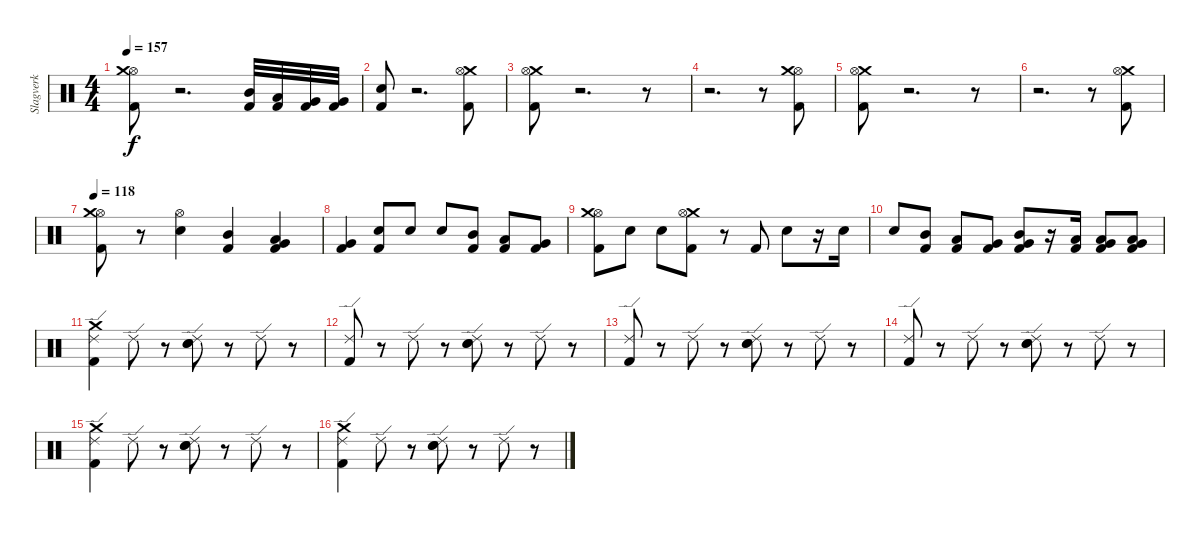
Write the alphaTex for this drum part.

\track ("Slagverk" "Slagverk") {instrument percussion}
\staff {score}
\articulation defaults
\ts (4 4)
\tempo 157
\clef neutral
\ks c
("Hi-Hat (open)" "Crash medium (hit)" "Kick (hit) 2").8{dy f} r.2{d} ("Kick (hit) 2" "Mid Tom (hit)").32 ("Kick (hit) 2" "Low Tom (hit)").32 ("Kick (hit) 2" "Very Low Tom (hit)").32 ("Kick (hit) 2" "Very Low Tom (hit)").32 |
("Kick (hit) 2" "Snare (hit) 2").8 r.2{d} ("Crash medium (hit)" "Hi-Hat (open)" "Kick (hit) 2").8 |
("Crash medium (hit)" "Hi-Hat (open)" "Kick (hit) 2").8 r.2{d} r.8 |
r.2{d} r.8 ("Hi-Hat (open)" "Crash medium (hit)" "Kick (hit) 2").8 |
("Crash medium (hit)" "Hi-Hat (open)" "Kick (hit) 2").8 r.2{d} r.8 |
r.2{d} r.8 ("Crash medium (hit)" "Hi-Hat (open)" "Kick (hit) 2").8 |
\tempo 118
("Hi-Hat (open)" "Crash medium (hit)" "Kick (hit) 2").8 r.8 ("Hi-Hat (open)" "Snare (hit) 2").4 ("Mid Tom (hit)" "Kick (hit) 2").4 ("Low Tom (hit)" "Kick (hit) 2" "Very Low Tom (hit)").4 |
("Very Low Tom (hit)" "Kick (hit) 2").4 ("Kick (hit) 2" "Snare (hit) 2").8 "Snare (hit) 2".8 "Snare (hit) 2".8 ("Kick (hit) 2" "Mid Tom (hit)").8 ("Kick (hit) 2" "Low Tom (hit)").8 ("Kick (hit) 2" "Very Low Tom (hit)").8 |
("Hi-Hat (open)" "Crash medium (hit)" "Kick (hit) 2").8 "Snare (hit) 2".8 "Snare (hit) 2".8 ("Crash medium (hit)" "Hi-Hat (open)" "Kick (hit) 2").8 r.8 "Kick (hit) 2".8 "Snare (hit) 2".8 r.16 "Snare (hit) 2".16 |
"Snare (hit) 2".8 ("Mid Tom (hit)" "Kick (hit) 2").8 ("Low Tom (hit)" "Kick (hit) 2").8 ("Very Low Tom (hit)" "Kick (hit) 2").8 ("Mid Tom (hit)" "Very Low Tom (hit)" "Kick (hit) 2").8 r.16 ("Low Tom (hit)" "Kick (hit) 2").16 ("Low Floor Tom (hit)" "Very Low Tom (hit)" "Kick (hit) 2").8 ("Very Low Tom (hit)" "Low Floor Tom (hit)" "Kick (hit) 2").8 |
("Crash medium (hit)" "Kick (hit) 2" "Ride (edge) 2").4 "Ride (edge) 2".8 r.8 ("Electric Snare (hit)" "Snare (hit) 2" "Ride (edge) 2").8 r.8 "Ride (edge) 2".8 r.8 |
("Kick (hit) 2" "Ride (edge) 2").8 r.8 "Ride (edge) 2".8 r.8 ("Electric Snare (hit)" "Snare (hit) 2" "Ride (edge) 2").8 r.8 "Ride (edge) 2".8 r.8 |
("Kick (hit) 2" "Ride (edge) 2").8 r.8 "Ride (edge) 2".8 r.8 ("Electric Snare (hit)" "Snare (hit) 2" "Ride (edge) 2").8 r.8 "Ride (edge) 2".8 r.8 |
("Kick (hit) 2" "Ride (edge) 2").8 r.8 "Ride (edge) 2".8 r.8 ("Electric Snare (hit)" "Snare (hit) 2" "Ride (edge) 2").8 r.8 "Ride (edge) 2".8 r.8 |
("Crash medium (hit)" "Kick (hit) 2" "Ride (edge) 2").4 "Ride (edge) 2".8 r.8 ("Electric Snare (hit)" "Snare (hit) 2" "Ride (edge) 2").8 r.8 "Ride (edge) 2".8 r.8 |
("Crash medium (hit)" "Kick (hit) 2" "Ride (edge) 2").4 "Ride (edge) 2".8 r.8 ("Electric Snare (hit)" "Snare (hit) 2" "Ride (edge) 2").8 r.8 "Ride (edge) 2".8 r.8
